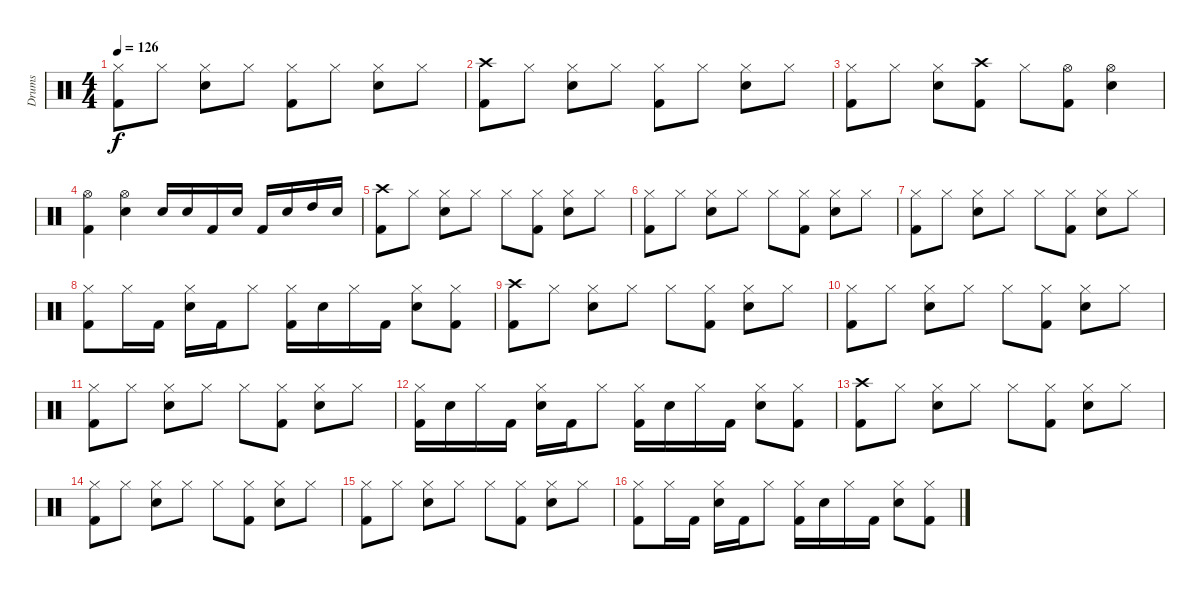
\track ("Drums" "Drums") {instrument percussion}
\staff {score}
\articulation defaults
\ts (4 4)
\tempo 126
\clef neutral
\ks c
("Hi-Hat (closed)" "Kick (hit) 2").8{dy f} "Hi-Hat (closed)".8 ("Hi-Hat (closed)" "Electric Snare (hit)").8 "Hi-Hat (closed)".8 ("Hi-Hat (closed)" "Kick (hit) 2").8 "Hi-Hat (closed)".8 ("Hi-Hat (closed)" "Electric Snare (hit)").8 "Hi-Hat (closed)".8 |
("Crash high (hit)" "Kick (hit) 2").8 "Hi-Hat (closed)".8 ("Hi-Hat (closed)" "Electric Snare (hit)").8 "Hi-Hat (closed)".8 ("Hi-Hat (closed)" "Kick (hit) 2").8 "Hi-Hat (closed)".8 ("Hi-Hat (closed)" "Electric Snare (hit)").8 "Hi-Hat (closed)".8 |
("Hi-Hat (closed)" "Kick (hit) 2").8 "Hi-Hat (closed)".8 ("Hi-Hat (closed)" "Electric Snare (hit)").8 ("Crash high (hit)" "Kick (hit) 2").8 "Hi-Hat (closed)".8 ("Hi-Hat (open)" "Kick (hit) 2").8 ("Hi-Hat (open)" "Electric Snare (hit)").4 |
("Hi-Hat (open)" "Kick (hit) 2").4 ("Hi-Hat (open)" "Electric Snare (hit)").4 "Electric Snare (hit)".16 "Electric Snare (hit)".16 "Kick (hit) 2".16 "Electric Snare (hit)".16 "Kick (hit) 2".16 "Electric Snare (hit)".16 "High Tom (hit)".16 "Electric Snare (hit)".16 |
("Crash high (hit)" "Kick (hit) 2").8 "Hi-Hat (closed)".8 ("Hi-Hat (closed)" "Electric Snare (hit)").8 "Hi-Hat (closed)".8 "Hi-Hat (closed)".8 ("Hi-Hat (closed)" "Kick (hit) 2").8 ("Hi-Hat (closed)" "Electric Snare (hit)").8 "Hi-Hat (closed)".8 |
("Hi-Hat (closed)" "Kick (hit) 2").8 "Hi-Hat (closed)".8 ("Hi-Hat (closed)" "Electric Snare (hit)").8 "Hi-Hat (closed)".8 "Hi-Hat (closed)".8 ("Hi-Hat (closed)" "Kick (hit) 2").8 ("Hi-Hat (closed)" "Electric Snare (hit)").8 "Hi-Hat (closed)".8 |
("Hi-Hat (closed)" "Kick (hit) 2").8 "Hi-Hat (closed)".8 ("Hi-Hat (closed)" "Electric Snare (hit)").8 "Hi-Hat (closed)".8 "Hi-Hat (closed)".8 ("Hi-Hat (closed)" "Kick (hit) 2").8 ("Hi-Hat (closed)" "Electric Snare (hit)").8 "Hi-Hat (closed)".8 |
("Hi-Hat (closed)" "Kick (hit) 2").8 "Hi-Hat (closed)".16 "Kick (hit) 2".16 ("Hi-Hat (closed)" "Electric Snare (hit)").16 "Kick (hit) 2".16 "Hi-Hat (closed)".8 ("Hi-Hat (closed)" "Kick (hit) 2").16 "Electric Snare (hit)".16 "Hi-Hat (closed)".16 "Kick (hit) 2".16 ("Hi-Hat (closed)" "Electric Snare (hit)").8 ("Hi-Hat (closed)" "Kick (hit) 2").8 |
("Crash high (hit)" "Kick (hit) 2").8 "Hi-Hat (closed)".8 ("Hi-Hat (closed)" "Electric Snare (hit)").8 "Hi-Hat (closed)".8 "Hi-Hat (closed)".8 ("Hi-Hat (closed)" "Kick (hit) 2").8 ("Hi-Hat (closed)" "Electric Snare (hit)").8 "Hi-Hat (closed)".8 |
("Hi-Hat (closed)" "Kick (hit) 2").8 "Hi-Hat (closed)".8 ("Hi-Hat (closed)" "Electric Snare (hit)").8 "Hi-Hat (closed)".8 "Hi-Hat (closed)".8 ("Hi-Hat (closed)" "Kick (hit) 2").8 ("Hi-Hat (closed)" "Electric Snare (hit)").8 "Hi-Hat (closed)".8 |
("Hi-Hat (closed)" "Kick (hit) 2").8 "Hi-Hat (closed)".8 ("Hi-Hat (closed)" "Electric Snare (hit)").8 "Hi-Hat (closed)".8 "Hi-Hat (closed)".8 ("Hi-Hat (closed)" "Kick (hit) 2").8 ("Hi-Hat (closed)" "Electric Snare (hit)").8 "Hi-Hat (closed)".8 |
("Hi-Hat (closed)" "Kick (hit) 2").16 "Electric Snare (hit)".16 "Hi-Hat (closed)".16 "Kick (hit) 2".16 ("Hi-Hat (closed)" "Electric Snare (hit)").16 "Kick (hit) 2".16 "Hi-Hat (closed)".8 ("Hi-Hat (closed)" "Kick (hit) 2").16 "Electric Snare (hit)".16 "Hi-Hat (closed)".16 "Kick (hit) 2".16 ("Hi-Hat (closed)" "Electric Snare (hit)").8 ("Hi-Hat (closed)" "Kick (hit) 2").8 |
("Crash high (hit)" "Kick (hit) 2").8 "Hi-Hat (closed)".8 ("Hi-Hat (closed)" "Electric Snare (hit)").8 "Hi-Hat (closed)".8 "Hi-Hat (closed)".8 ("Hi-Hat (closed)" "Kick (hit) 2").8 ("Hi-Hat (closed)" "Electric Snare (hit)").8 "Hi-Hat (closed)".8 |
("Hi-Hat (closed)" "Kick (hit) 2").8 "Hi-Hat (closed)".8 ("Hi-Hat (closed)" "Electric Snare (hit)").8 "Hi-Hat (closed)".8 "Hi-Hat (closed)".8 ("Hi-Hat (closed)" "Kick (hit) 2").8 ("Hi-Hat (closed)" "Electric Snare (hit)").8 "Hi-Hat (closed)".8 |
("Hi-Hat (closed)" "Kick (hit) 2").8 "Hi-Hat (closed)".8 ("Hi-Hat (closed)" "Electric Snare (hit)").8 "Hi-Hat (closed)".8 "Hi-Hat (closed)".8 ("Hi-Hat (closed)" "Kick (hit) 2").8 ("Hi-Hat (closed)" "Electric Snare (hit)").8 "Hi-Hat (closed)".8 |
("Hi-Hat (closed)" "Kick (hit) 2").8 "Hi-Hat (closed)".16 "Kick (hit) 2".16 ("Hi-Hat (closed)" "Electric Snare (hit)").16 "Kick (hit) 2".16 "Hi-Hat (closed)".8 ("Hi-Hat (closed)" "Kick (hit) 2").16 "Electric Snare (hit)".16 "Hi-Hat (closed)".16 "Kick (hit) 2".16 ("Hi-Hat (closed)" "Electric Snare (hit)").8 ("Hi-Hat (closed)" "Kick (hit) 2").8
